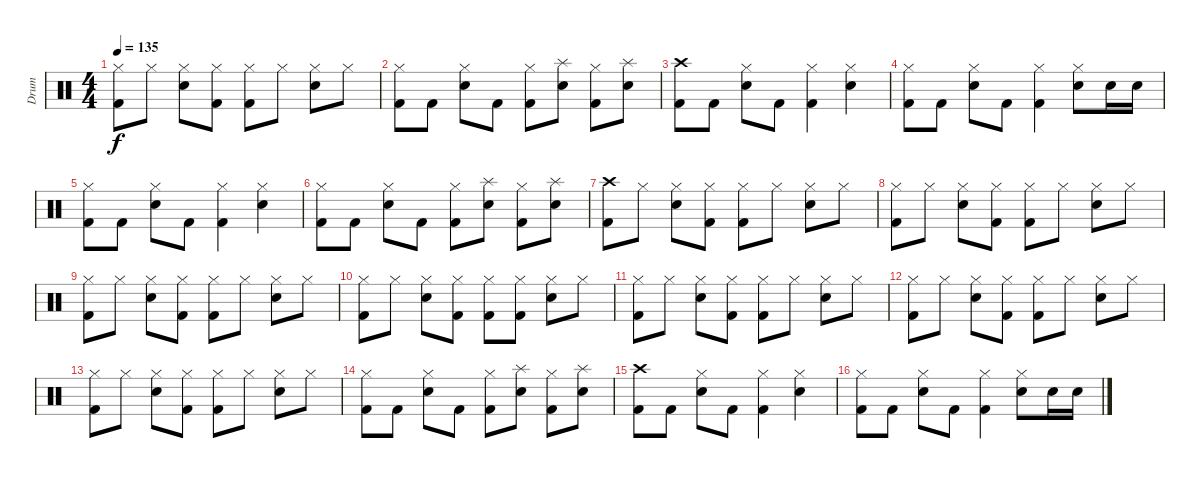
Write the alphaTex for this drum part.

\track ("Drum" "Drum") {instrument percussion}
\staff {score}
\articulation defaults
\ts (4 4)
\tempo 135
\clef neutral
\ks c
("Hi-Hat (closed)" "Kick (hit) 2").8{dy f} "Hi-Hat (closed)".8 ("Electric Snare (hit)" "Hi-Hat (closed)").8 ("Kick (hit) 2" "Hi-Hat (closed)").8 ("Kick (hit) 2" "Hi-Hat (closed)").8 "Hi-Hat (closed)".8 ("Electric Snare (hit)" "Hi-Hat (closed)").8 "Hi-Hat (closed)".8 |
("Hi-Hat (closed)" "Kick (hit) 2").8 "Kick (hit) 2".8 ("Hi-Hat (closed)" "Electric Snare (hit)").8 "Kick (hit) 2".8 ("Hi-Hat (closed)" "Kick (hit) 2").8 ("Splash (hit)" "Electric Snare (hit)").8 ("Hi-Hat (closed)" "Kick (hit) 2").8 ("Electric Snare (hit)" "Splash (hit)").8 |
("Crash high (hit)" "Kick (hit) 2").8 "Kick (hit) 2".8 ("Hi-Hat (closed)" "Electric Snare (hit)").8 "Kick (hit) 2".8 ("Hi-Hat (closed)" "Kick (hit) 2").4 ("Hi-Hat (closed)" "Electric Snare (hit)").4 |
("Hi-Hat (closed)" "Kick (hit) 2").8 "Kick (hit) 2".8 ("Hi-Hat (closed)" "Electric Snare (hit)").8 "Kick (hit) 2".8 ("Hi-Hat (closed)" "Kick (hit) 2").4 ("Hi-Hat (closed)" "Electric Snare (hit)").8 "Electric Snare (hit)".16 "Electric Snare (hit)".16 |
("Hi-Hat (closed)" "Kick (hit) 2").8 "Kick (hit) 2".8 ("Hi-Hat (closed)" "Electric Snare (hit)").8 "Kick (hit) 2".8 ("Hi-Hat (closed)" "Kick (hit) 2").4 ("Hi-Hat (closed)" "Electric Snare (hit)").4 |
("Hi-Hat (closed)" "Kick (hit) 2").8 "Kick (hit) 2".8 ("Hi-Hat (closed)" "Electric Snare (hit)").8 "Kick (hit) 2".8 ("Hi-Hat (closed)" "Kick (hit) 2").8 ("Splash (hit)" "Electric Snare (hit)").8 ("Hi-Hat (closed)" "Kick (hit) 2").8 ("Electric Snare (hit)" "Splash (hit)").8 |
("Crash high (hit)" "Kick (hit) 2").8 "Hi-Hat (closed)".8 ("Electric Snare (hit)" "Hi-Hat (closed)").8 ("Kick (hit) 2" "Hi-Hat (closed)").8 ("Kick (hit) 2" "Hi-Hat (closed)").8 "Hi-Hat (closed)".8 ("Electric Snare (hit)" "Hi-Hat (closed)").8 "Hi-Hat (closed)".8 |
("Hi-Hat (closed)" "Kick (hit) 2").8 "Hi-Hat (closed)".8 ("Hi-Hat (closed)" "Electric Snare (hit)").8 ("Hi-Hat (closed)" "Kick (hit) 2").8 ("Hi-Hat (closed)" "Kick (hit) 2").8 "Hi-Hat (closed)".8 ("Electric Snare (hit)" "Hi-Hat (closed)").8 "Hi-Hat (closed)".8 |
("Hi-Hat (closed)" "Kick (hit) 2").8 "Hi-Hat (closed)".8 ("Electric Snare (hit)" "Hi-Hat (closed)").8 ("Kick (hit) 2" "Hi-Hat (closed)").8 ("Kick (hit) 2" "Hi-Hat (closed)").8 "Hi-Hat (closed)".8 ("Electric Snare (hit)" "Hi-Hat (closed)").8 "Hi-Hat (closed)".8 |
("Hi-Hat (closed)" "Kick (hit) 2").8 "Hi-Hat (closed)".8 ("Hi-Hat (closed)" "Electric Snare (hit)").8 ("Hi-Hat (closed)" "Kick (hit) 2").8 ("Hi-Hat (closed)" "Kick (hit) 2").8 ("Hi-Hat (closed)" "Kick (hit) 2").8 ("Electric Snare (hit)" "Hi-Hat (closed)").8 "Hi-Hat (closed)".8 |
("Hi-Hat (closed)" "Kick (hit) 2").8 "Hi-Hat (closed)".8 ("Electric Snare (hit)" "Hi-Hat (closed)").8 ("Kick (hit) 2" "Hi-Hat (closed)").8 ("Kick (hit) 2" "Hi-Hat (closed)").8 "Hi-Hat (closed)".8 ("Electric Snare (hit)" "Hi-Hat (closed)").8 "Hi-Hat (closed)".8 |
("Hi-Hat (closed)" "Kick (hit) 2").8 "Hi-Hat (closed)".8 ("Hi-Hat (closed)" "Electric Snare (hit)").8 ("Hi-Hat (closed)" "Kick (hit) 2").8 ("Hi-Hat (closed)" "Kick (hit) 2").8 "Hi-Hat (closed)".8 ("Electric Snare (hit)" "Hi-Hat (closed)").8 "Hi-Hat (closed)".8 |
("Hi-Hat (closed)" "Kick (hit) 2").8 "Hi-Hat (closed)".8 ("Electric Snare (hit)" "Hi-Hat (closed)").8 ("Kick (hit) 2" "Hi-Hat (closed)").8 ("Kick (hit) 2" "Hi-Hat (closed)").8 "Hi-Hat (closed)".8 ("Electric Snare (hit)" "Hi-Hat (closed)").8 "Hi-Hat (closed)".8 |
("Hi-Hat (closed)" "Kick (hit) 2").8 "Kick (hit) 2".8 ("Hi-Hat (closed)" "Electric Snare (hit)").8 "Kick (hit) 2".8 ("Hi-Hat (closed)" "Kick (hit) 2").8 ("Splash (hit)" "Electric Snare (hit)").8 ("Hi-Hat (closed)" "Kick (hit) 2").8 ("Electric Snare (hit)" "Splash (hit)").8 |
("Crash high (hit)" "Kick (hit) 2").8 "Kick (hit) 2".8 ("Hi-Hat (closed)" "Electric Snare (hit)").8 "Kick (hit) 2".8 ("Hi-Hat (closed)" "Kick (hit) 2").4 ("Hi-Hat (closed)" "Electric Snare (hit)").4 |
("Hi-Hat (closed)" "Kick (hit) 2").8 "Kick (hit) 2".8 ("Hi-Hat (closed)" "Electric Snare (hit)").8 "Kick (hit) 2".8 ("Hi-Hat (closed)" "Kick (hit) 2").4 ("Hi-Hat (closed)" "Electric Snare (hit)").8 "Electric Snare (hit)".16 "Electric Snare (hit)".16
